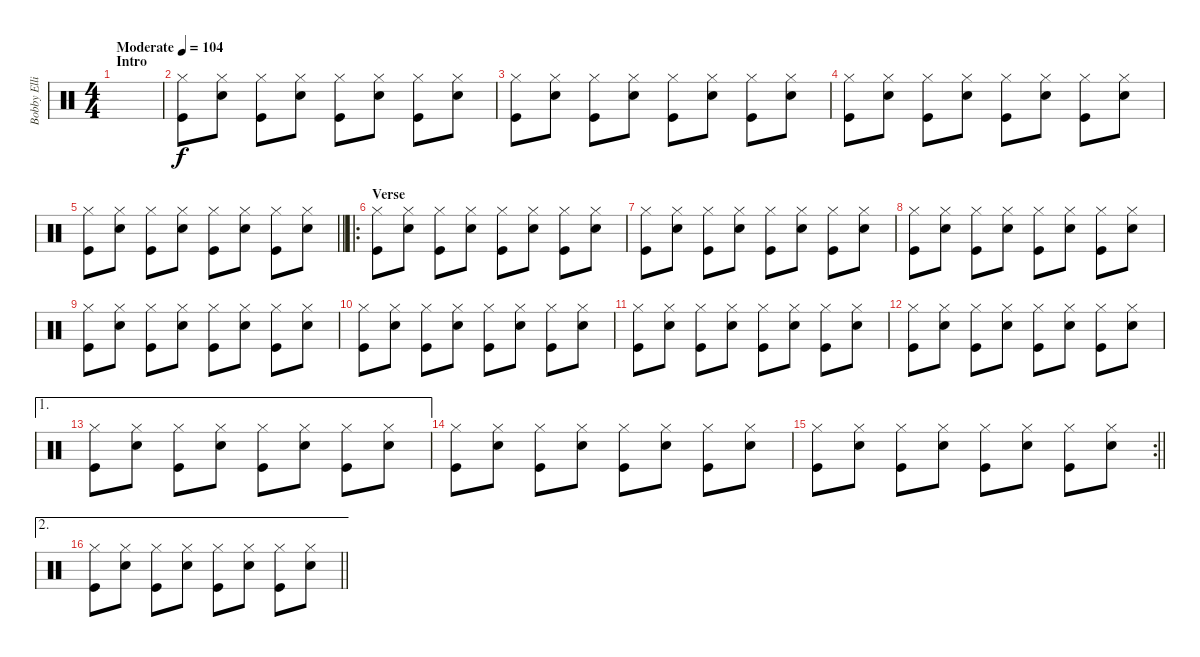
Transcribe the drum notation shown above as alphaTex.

\track ("Bobby Elliott" "Bobby Elli") {instrument percussion}
\staff {score}
\articulation defaults
\ts (4 4)
\section ("" "Intro")
\tempo (104 "Moderate")
\clef neutral
\ks c
|
("Hi-Hat (closed)" "Kick (hit)").8 ("Hi-Hat (closed)" "Snare (hit) 2").8 ("Hi-Hat (closed)" "Kick (hit)").8 ("Hi-Hat (closed)" "Snare (hit) 2").8 ("Hi-Hat (closed)" "Kick (hit)").8 ("Hi-Hat (closed)" "Snare (hit) 2").8 ("Hi-Hat (closed)" "Kick (hit)").8 ("Hi-Hat (closed)" "Snare (hit) 2").8 |
("Hi-Hat (closed)" "Kick (hit)").8 ("Hi-Hat (closed)" "Snare (hit) 2").8 ("Hi-Hat (closed)" "Kick (hit)").8 ("Hi-Hat (closed)" "Snare (hit) 2").8 ("Hi-Hat (closed)" "Kick (hit)").8 ("Hi-Hat (closed)" "Snare (hit) 2").8 ("Hi-Hat (closed)" "Kick (hit)").8 ("Hi-Hat (closed)" "Snare (hit) 2").8 |
("Hi-Hat (closed)" "Kick (hit)").8 ("Hi-Hat (closed)" "Snare (hit) 2").8 ("Hi-Hat (closed)" "Kick (hit)").8 ("Hi-Hat (closed)" "Snare (hit) 2").8 ("Hi-Hat (closed)" "Kick (hit)").8 ("Hi-Hat (closed)" "Snare (hit) 2").8 ("Hi-Hat (closed)" "Kick (hit)").8 ("Hi-Hat (closed)" "Snare (hit) 2").8 |
\barLineRight lightlight
("Hi-Hat (closed)" "Kick (hit)").8 ("Hi-Hat (closed)" "Snare (hit) 2").8 ("Hi-Hat (closed)" "Kick (hit)").8 ("Hi-Hat (closed)" "Snare (hit) 2").8 ("Hi-Hat (closed)" "Kick (hit)").8 ("Hi-Hat (closed)" "Snare (hit) 2").8 ("Hi-Hat (closed)" "Kick (hit)").8 ("Hi-Hat (closed)" "Snare (hit) 2").8 |
\ro
\section ("" "Verse")
("Hi-Hat (closed)" "Kick (hit)").8 ("Hi-Hat (closed)" "Snare (hit) 2").8 ("Hi-Hat (closed)" "Kick (hit)").8 ("Hi-Hat (closed)" "Snare (hit) 2").8 ("Hi-Hat (closed)" "Kick (hit)").8 ("Hi-Hat (closed)" "Snare (hit) 2").8 ("Hi-Hat (closed)" "Kick (hit)").8 ("Hi-Hat (closed)" "Snare (hit) 2").8 |
("Hi-Hat (closed)" "Kick (hit)").8 ("Hi-Hat (closed)" "Snare (hit) 2").8 ("Hi-Hat (closed)" "Kick (hit)").8 ("Hi-Hat (closed)" "Snare (hit) 2").8 ("Hi-Hat (closed)" "Kick (hit)").8 ("Hi-Hat (closed)" "Snare (hit) 2").8 ("Hi-Hat (closed)" "Kick (hit)").8 ("Hi-Hat (closed)" "Snare (hit) 2").8 |
("Hi-Hat (closed)" "Kick (hit)").8 ("Hi-Hat (closed)" "Snare (hit) 2").8 ("Hi-Hat (closed)" "Kick (hit)").8 ("Hi-Hat (closed)" "Snare (hit) 2").8 ("Hi-Hat (closed)" "Kick (hit)").8 ("Hi-Hat (closed)" "Snare (hit) 2").8 ("Hi-Hat (closed)" "Kick (hit)").8 ("Hi-Hat (closed)" "Snare (hit) 2").8 |
("Hi-Hat (closed)" "Kick (hit)").8 ("Hi-Hat (closed)" "Snare (hit) 2").8 ("Hi-Hat (closed)" "Kick (hit)").8 ("Hi-Hat (closed)" "Snare (hit) 2").8 ("Hi-Hat (closed)" "Kick (hit)").8 ("Hi-Hat (closed)" "Snare (hit) 2").8 ("Hi-Hat (closed)" "Kick (hit)").8 ("Hi-Hat (closed)" "Snare (hit) 2").8 |
("Hi-Hat (closed)" "Kick (hit)").8 ("Hi-Hat (closed)" "Snare (hit) 2").8 ("Hi-Hat (closed)" "Kick (hit)").8 ("Hi-Hat (closed)" "Snare (hit) 2").8 ("Hi-Hat (closed)" "Kick (hit)").8 ("Hi-Hat (closed)" "Snare (hit) 2").8 ("Hi-Hat (closed)" "Kick (hit)").8 ("Hi-Hat (closed)" "Snare (hit) 2").8 |
("Hi-Hat (closed)" "Kick (hit)").8 ("Hi-Hat (closed)" "Snare (hit) 2").8 ("Hi-Hat (closed)" "Kick (hit)").8 ("Hi-Hat (closed)" "Snare (hit) 2").8 ("Hi-Hat (closed)" "Kick (hit)").8 ("Hi-Hat (closed)" "Snare (hit) 2").8 ("Hi-Hat (closed)" "Kick (hit)").8 ("Hi-Hat (closed)" "Snare (hit) 2").8 |
("Hi-Hat (closed)" "Kick (hit)").8 ("Hi-Hat (closed)" "Snare (hit) 2").8 ("Hi-Hat (closed)" "Kick (hit)").8 ("Hi-Hat (closed)" "Snare (hit) 2").8 ("Hi-Hat (closed)" "Kick (hit)").8 ("Hi-Hat (closed)" "Snare (hit) 2").8 ("Hi-Hat (closed)" "Kick (hit)").8 ("Hi-Hat (closed)" "Snare (hit) 2").8 |
\ae 1
("Hi-Hat (closed)" "Kick (hit)").8 ("Hi-Hat (closed)" "Snare (hit) 2").8 ("Hi-Hat (closed)" "Kick (hit)").8 ("Hi-Hat (closed)" "Snare (hit) 2").8 ("Hi-Hat (closed)" "Kick (hit)").8 ("Hi-Hat (closed)" "Snare (hit) 2").8 ("Hi-Hat (closed)" "Kick (hit)").8 ("Hi-Hat (closed)" "Snare (hit) 2").8 |
("Hi-Hat (closed)" "Kick (hit)").8 ("Hi-Hat (closed)" "Snare (hit) 2").8 ("Hi-Hat (closed)" "Kick (hit)").8 ("Hi-Hat (closed)" "Snare (hit) 2").8 ("Hi-Hat (closed)" "Kick (hit)").8 ("Hi-Hat (closed)" "Snare (hit) 2").8 ("Hi-Hat (closed)" "Kick (hit)").8 ("Hi-Hat (closed)" "Snare (hit) 2").8 |
\rc 2
\barLineRight lightlight
("Hi-Hat (closed)" "Kick (hit)").8 ("Hi-Hat (closed)" "Snare (hit) 2").8 ("Hi-Hat (closed)" "Kick (hit)").8 ("Hi-Hat (closed)" "Snare (hit) 2").8 ("Hi-Hat (closed)" "Kick (hit)").8 ("Hi-Hat (closed)" "Snare (hit) 2").8 ("Hi-Hat (closed)" "Kick (hit)").8 ("Hi-Hat (closed)" "Snare (hit) 2").8 |
\ae 2
\barLineRight lightlight
("Hi-Hat (closed)" "Kick (hit)").8 ("Hi-Hat (closed)" "Snare (hit) 2").8 ("Hi-Hat (closed)" "Kick (hit)").8 ("Hi-Hat (closed)" "Snare (hit) 2").8 ("Hi-Hat (closed)" "Kick (hit)").8 ("Hi-Hat (closed)" "Snare (hit) 2").8 ("Hi-Hat (closed)" "Kick (hit)").8 ("Hi-Hat (closed)" "Snare (hit) 2").8
